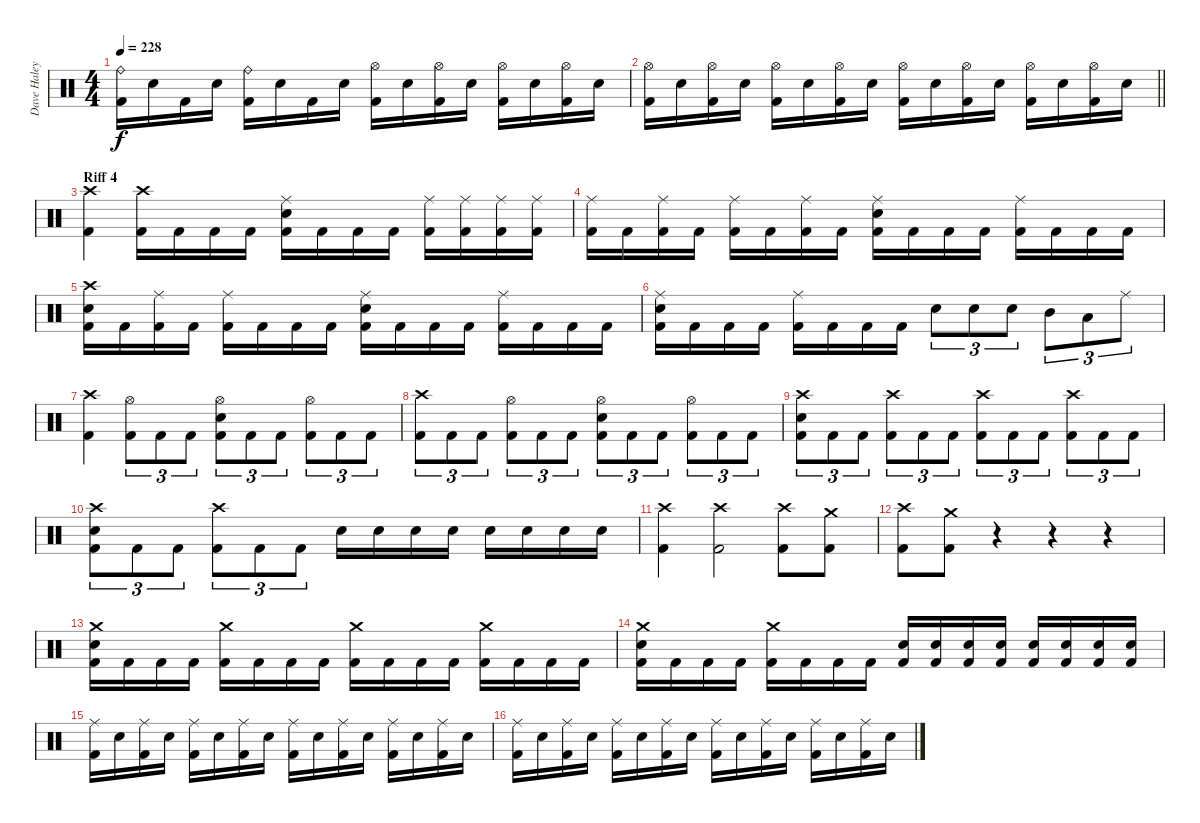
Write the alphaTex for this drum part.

\track ("Dave Haley" "Dave Haley") {instrument percussion}
\staff {score}
\articulation defaults
\ts (4 4)
\tempo 228
\clef neutral
\ks c
("Ride (bell)" "Kick (hit) 2").16{dy f} "Snare (hit) 2".16 "Kick (hit) 2".16 "Snare (hit) 2".16 ("Ride (bell)" "Kick (hit) 2").16 "Snare (hit) 2".16 "Kick (hit) 2".16 "Snare (hit) 2".16 ("Hi-Hat (open)" "Kick (hit) 2").16 "Snare (hit) 2".16 ("Hi-Hat (open)" "Kick (hit) 2").16 "Snare (hit) 2".16 ("Hi-Hat (open)" "Kick (hit) 2").16 "Snare (hit) 2".16 ("Hi-Hat (open)" "Kick (hit) 2").16 "Snare (hit) 2".16 |
\barLineRight lightlight
("Hi-Hat (open)" "Kick (hit) 2").16 "Snare (hit) 2".16 ("Hi-Hat (open)" "Kick (hit) 2").16 "Snare (hit) 2".16 ("Hi-Hat (open)" "Kick (hit) 2").16 "Snare (hit) 2".16 ("Hi-Hat (open)" "Kick (hit) 2").16 "Snare (hit) 2".16 ("Hi-Hat (open)" "Kick (hit) 2").16 "Snare (hit) 2".16 ("Hi-Hat (open)" "Kick (hit) 2").16 "Snare (hit) 2".16 ("Hi-Hat (open)" "Kick (hit) 2").16 "Snare (hit) 2".16 ("Hi-Hat (open)" "Kick (hit) 2").16 "Snare (hit) 2".16 |
\section ("" "Riff 4")
("Crash high (hit)" "Kick (hit) 2").4 ("Crash high (hit)" "Kick (hit) 2").16 "Kick (hit) 2".16 "Kick (hit) 2".16 "Kick (hit) 2".16 ("Ride (middle)" "Snare (hit) 2" "Kick (hit) 2").16 "Kick (hit) 2".16 "Kick (hit) 2".16 "Kick (hit) 2".16 ("Ride (middle)" "Kick (hit) 2").16 ("Ride (middle)" "Kick (hit) 2").16 ("Ride (middle)" "Kick (hit) 2").16 ("Ride (middle)" "Kick (hit) 2").16 |
("Ride (middle)" "Kick (hit) 2").16 "Kick (hit) 2".16 ("Ride (middle)" "Kick (hit) 2").16 "Kick (hit) 2".16 ("Ride (middle)" "Kick (hit) 2").16 "Kick (hit) 2".16 ("Ride (middle)" "Kick (hit) 2").16 "Kick (hit) 2".16 ("Ride (middle)" "Snare (hit) 2" "Kick (hit) 2").16 "Kick (hit) 2".16 "Kick (hit) 2".16 "Kick (hit) 2".16 ("Ride (middle)" "Kick (hit) 2").16 "Kick (hit) 2".16 "Kick (hit) 2".16 "Kick (hit) 2".16 |
("Crash high (hit)" "Snare (hit) 2" "Kick (hit) 2").16 "Kick (hit) 2".16 ("Ride (middle)" "Kick (hit) 2").16 "Kick (hit) 2".16 ("Ride (middle)" "Kick (hit) 2").16 "Kick (hit) 2".16 "Kick (hit) 2".16 "Kick (hit) 2".16 ("Ride (middle)" "Snare (hit) 2" "Kick (hit) 2").16 "Kick (hit) 2".16 "Kick (hit) 2".16 "Kick (hit) 2".16 ("Ride (middle)" "Kick (hit) 2").16 "Kick (hit) 2".16 "Kick (hit) 2".16 "Kick (hit) 2".16 |
("Ride (middle)" "Snare (hit) 2" "Kick (hit) 2").16 "Kick (hit) 2".16 "Kick (hit) 2".16 "Kick (hit) 2".16 ("Ride (middle)" "Kick (hit) 2").16 "Kick (hit) 2".16 "Kick (hit) 2".16 "Kick (hit) 2".16 "Snare (hit) 2".8{tu (3 2)} "Snare (hit) 2".8{tu (3 2)} "Snare (hit) 2".8{tu (3 2)} "Mid Tom (hit)".8{tu (3 2)} "Low Tom (hit)".8{tu (3 2)} "Ride (middle)".8{tu (3 2)} |
("Crash high (hit)" "Kick (hit) 2").4 ("Hi-Hat (open)" "Kick (hit) 2").8{tu (3 2)} "Kick (hit) 2".8{tu (3 2)} "Kick (hit) 2".8{tu (3 2)} ("Hi-Hat (open)" "Snare (hit) 2" "Kick (hit) 2").8{tu (3 2)} "Kick (hit) 2".8{tu (3 2)} "Kick (hit) 2".8{tu (3 2)} ("Hi-Hat (open)" "Kick (hit) 2").8{tu (3 2)} "Kick (hit) 2".8{tu (3 2)} "Kick (hit) 2".8{tu (3 2)} |
("Crash high (hit)" "Kick (hit) 2").8{tu (3 2)} "Kick (hit) 2".8{tu (3 2)} "Kick (hit) 2".8{tu (3 2)} ("Hi-Hat (open)" "Kick (hit) 2").8{tu (3 2)} "Kick (hit) 2".8{tu (3 2)} "Kick (hit) 2".8{tu (3 2)} ("Hi-Hat (open)" "Snare (hit) 2" "Kick (hit) 2").8{tu (3 2)} "Kick (hit) 2".8{tu (3 2)} "Kick (hit) 2".8{tu (3 2)} ("Hi-Hat (open)" "Kick (hit) 2").8{tu (3 2)} "Kick (hit) 2".8{tu (3 2)} "Kick (hit) 2".8{tu (3 2)} |
("Crash high (hit)" "Snare (hit) 2" "Kick (hit) 2").8{tu (3 2)} "Kick (hit) 2".8{tu (3 2)} "Kick (hit) 2".8{tu (3 2)} ("Crash high (hit)" "Kick (hit) 2").8{tu (3 2)} "Kick (hit) 2".8{tu (3 2)} "Kick (hit) 2".8{tu (3 2)} ("Crash high (hit)" "Kick (hit) 2").8{tu (3 2)} "Kick (hit) 2".8{tu (3 2)} "Kick (hit) 2".8{tu (3 2)} ("Crash high (hit)" "Kick (hit) 2").8{tu (3 2)} "Kick (hit) 2".8{tu (3 2)} "Kick (hit) 2".8{tu (3 2)} |
("Crash high (hit)" "Snare (hit) 2" "Kick (hit) 2").8{tu (3 2)} "Kick (hit) 2".8{tu (3 2)} "Kick (hit) 2".8{tu (3 2)} ("Crash high (hit)" "Kick (hit) 2").8{tu (3 2)} "Kick (hit) 2".8{tu (3 2)} "Kick (hit) 2".8{tu (3 2)} "Snare (hit) 2".16 "Snare (hit) 2".16 "Snare (hit) 2".16 "Snare (hit) 2".16 "Snare (hit) 2".16 "Snare (hit) 2".16 "Snare (hit) 2".16 "Snare (hit) 2".16 |
("Crash high (hit)" "Kick (hit) 2").4 ("Crash high (hit)" "Kick (hit) 2").2 ("Crash high (hit)" "Kick (hit) 2").8 ("Crash medium (hit)" "Kick (hit) 2").8 |
("Crash high (hit)" "Kick (hit) 2").8 ("Crash medium (hit)" "Kick (hit) 2").8 r.4 r.4 r.4 |
("Crash medium (hit)" "Snare (hit) 2" "Kick (hit) 2").16 "Kick (hit) 2".16 "Kick (hit) 2".16 "Kick (hit) 2".16 ("Crash medium (hit)" "Kick (hit) 2").16 "Kick (hit) 2".16 "Kick (hit) 2".16 "Kick (hit) 2".16 ("Crash medium (hit)" "Kick (hit) 2").16 "Kick (hit) 2".16 "Kick (hit) 2".16 "Kick (hit) 2".16 ("Crash medium (hit)" "Kick (hit) 2").16 "Kick (hit) 2".16 "Kick (hit) 2".16 "Kick (hit) 2".16 |
("Crash medium (hit)" "Snare (hit) 2" "Kick (hit) 2").16 "Kick (hit) 2".16 "Kick (hit) 2".16 "Kick (hit) 2".16 ("Crash medium (hit)" "Kick (hit) 2").16 "Kick (hit) 2".16 "Kick (hit) 2".16 "Kick (hit) 2".16 ("Snare (hit) 2" "Kick (hit) 2").16 ("Snare (hit) 2" "Kick (hit) 2").16 ("Snare (hit) 2" "Kick (hit) 2").16 ("Snare (hit) 2" "Kick (hit) 2").16 ("Snare (hit) 2" "Kick (hit) 2").16 ("Snare (hit) 2" "Kick (hit) 2").16 ("Snare (hit) 2" "Kick (hit) 2").16 ("Snare (hit) 2" "Kick (hit) 2").16 |
("Ride (middle)" "Kick (hit) 2").16 "Snare (hit) 2".16 ("Ride (middle)" "Kick (hit) 2").16 "Snare (hit) 2".16 ("Ride (middle)" "Kick (hit) 2").16 "Snare (hit) 2".16 ("Ride (middle)" "Kick (hit) 2").16 "Snare (hit) 2".16 ("Ride (middle)" "Kick (hit) 2").16 "Snare (hit) 2".16 ("Ride (middle)" "Kick (hit) 2").16 "Snare (hit) 2".16 ("Ride (middle)" "Kick (hit) 2").16 "Snare (hit) 2".16 ("Ride (middle)" "Kick (hit) 2").16 "Snare (hit) 2".16 |
("Ride (middle)" "Kick (hit) 2").16 "Snare (hit) 2".16 ("Ride (middle)" "Kick (hit) 2").16 "Snare (hit) 2".16 ("Ride (middle)" "Kick (hit) 2").16 "Snare (hit) 2".16 ("Ride (middle)" "Kick (hit) 2").16 "Snare (hit) 2".16 ("Ride (middle)" "Kick (hit) 2").16 "Snare (hit) 2".16 ("Ride (middle)" "Kick (hit) 2").16 "Snare (hit) 2".16 ("Ride (middle)" "Kick (hit) 2").16 "Snare (hit) 2".16 ("Ride (middle)" "Kick (hit) 2").16 "Snare (hit) 2".16
